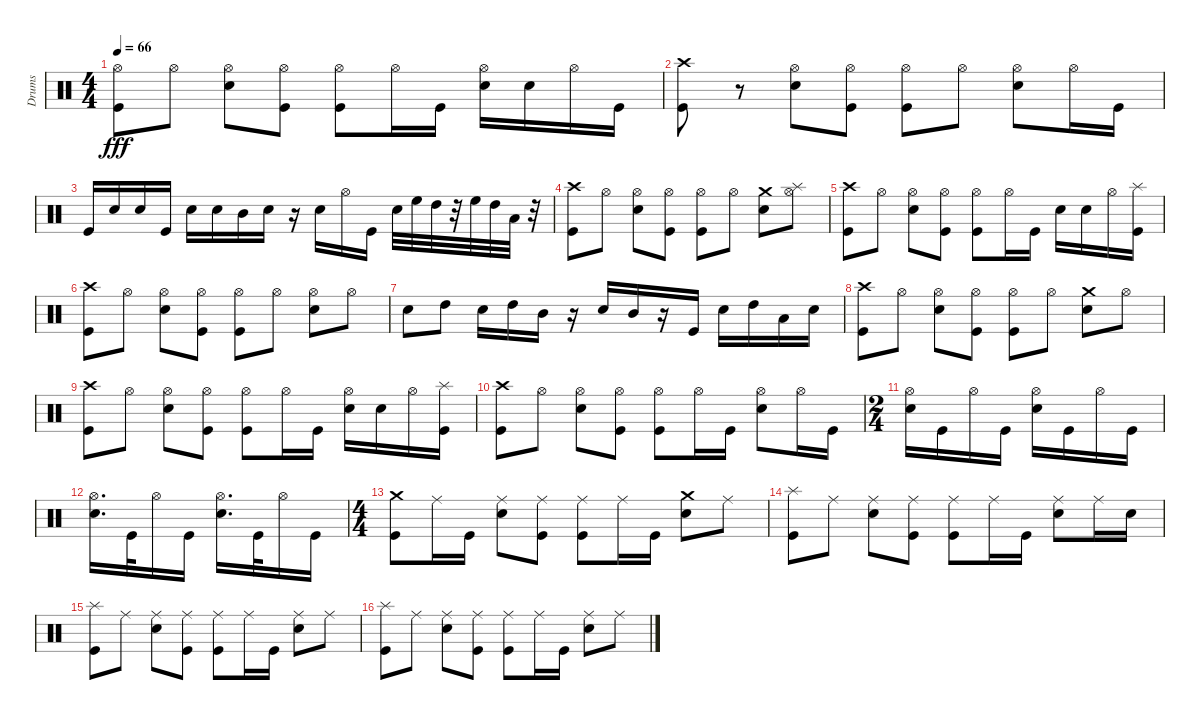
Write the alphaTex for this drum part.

\track ("Drums" "Drums") {instrument percussion}
\staff {score}
\articulation defaults
\ts (4 4)
\tempo 66
\clef neutral
\ks c
("Hi-Hat (open)" "Kick (hit)").8{dy fff} "Hi-Hat (open)".8 ("Hi-Hat (open)" "Snare (hit) 2").8 ("Hi-Hat (open)" "Kick (hit)").8 ("Hi-Hat (open)" "Kick (hit)").8 "Hi-Hat (open)".16 "Kick (hit)".16 ("Hi-Hat (open)" "Snare (hit) 2").16 "Snare (hit) 2".16 "Hi-Hat (open)".16 "Kick (hit)".16 |
("Crash high (hit)" "Kick (hit)").8 r.8 ("Hi-Hat (open)" "Snare (hit) 2").8 ("Hi-Hat (open)" "Kick (hit)").8 ("Hi-Hat (open)" "Kick (hit)").8 "Hi-Hat (open)".8 ("Hi-Hat (open)" "Snare (hit) 2").8 "Hi-Hat (open)".16 "Kick (hit)".16 |
"Kick (hit)".16 "Snare (hit) 2".16 "Snare (hit) 2".16 "Kick (hit)".16 "Snare (hit) 2".16 "Snare (hit) 2".16 "Mid Tom (hit)".16 "Snare (hit) 2".16 r.16 "Snare (hit) 2".16 "Hi-Hat (open)".16 "Kick (hit)".16 "Snare (hit) 2".32 "High Floor Tom (hit)".32 "High Tom (hit)".32 r.32 "High Floor Tom (hit)".32 "High Tom (hit)".32 "Low Tom (hit)".32 r.32 |
("Crash high (hit)" "Kick (hit)").8 "Hi-Hat (open)".8 ("Hi-Hat (open)" "Snare (hit) 2").8 ("Hi-Hat (open)" "Kick (hit)").8 ("Hi-Hat (open)" "Kick (hit)").8 "Hi-Hat (open)".8 ("Crash medium (hit)" "Snare (hit) 2").8 ("Hi-Hat (open)" "Splash (hit)").8 |
("Crash high (hit)" "Kick (hit)").8 "Hi-Hat (open)".8 ("Hi-Hat (open)" "Snare (hit) 2").8 ("Hi-Hat (open)" "Kick (hit)").8 ("Hi-Hat (open)" "Kick (hit)").8 "Hi-Hat (open)".16 "Kick (hit)".16 "Snare (hit) 2".16 "Snare (hit) 2".16 "Hi-Hat (open)".16 ("Splash (hit)" "Kick (hit)").16 |
("Crash high (hit)" "Kick (hit)").8 "Hi-Hat (open)".8 ("Hi-Hat (open)" "Snare (hit) 2").8 ("Hi-Hat (open)" "Kick (hit)").8 ("Hi-Hat (open)" "Kick (hit)").8 "Hi-Hat (open)".8 ("Hi-Hat (open)" "Snare (hit) 2").8 "Hi-Hat (open)".8 |
"Snare (hit) 2".8 "High Tom (hit)".8 "Snare (hit) 2".16 "High Tom (hit)".16 "Mid Tom (hit)".16 r.16 "Snare (hit) 2".16 "Mid Tom (hit)".16 r.16 "Kick (hit)".16 "Snare (hit) 2".16 "High Tom (hit)".16 "Low Tom (hit)".16 "Snare (hit) 2".16 |
("Crash high (hit)" "Kick (hit)").8 "Hi-Hat (open)".8 ("Hi-Hat (open)" "Snare (hit) 2").8 ("Hi-Hat (open)" "Kick (hit)").8 ("Hi-Hat (open)" "Kick (hit)").8 "Hi-Hat (open)".8 ("Crash medium (hit)" "Snare (hit) 2").8 "Hi-Hat (open)".8 |
("Crash high (hit)" "Kick (hit)").8 "Hi-Hat (open)".8 ("Hi-Hat (open)" "Snare (hit) 2").8 ("Hi-Hat (open)" "Kick (hit)").8 ("Hi-Hat (open)" "Kick (hit)").8 "Hi-Hat (open)".16 "Kick (hit)".16 ("Hi-Hat (open)" "Snare (hit) 2").16 "Snare (hit) 2".16 "Hi-Hat (open)".16 ("Splash (hit)" "Kick (hit)").16 |
("Crash high (hit)" "Kick (hit)").8 "Hi-Hat (open)".8 ("Hi-Hat (open)" "Snare (hit) 2").8 ("Hi-Hat (open)" "Kick (hit)").8 ("Hi-Hat (open)" "Kick (hit)").8 "Hi-Hat (open)".16 "Kick (hit)".16 ("Hi-Hat (open)" "Snare (hit) 2").8 "Hi-Hat (open)".16 "Kick (hit)".16 |
\ts (2 4)
("Hi-Hat (open)" "Snare (hit) 2").16 "Kick (hit)".16 "Hi-Hat (open)".16 "Kick (hit)".16 ("Hi-Hat (open)" "Snare (hit) 2").16 "Kick (hit)".16 "Hi-Hat (open)".16 "Kick (hit)".16 |
("Hi-Hat (open)" "Snare (hit) 2").16{d} "Kick (hit)".32 "Hi-Hat (open)".16 "Kick (hit)".16 ("Hi-Hat (open)" "Snare (hit) 2").16{d} "Kick (hit)".32 "Hi-Hat (open)".16 "Kick (hit)".16 |
\ts (4 4)
("Crash medium (hit)" "Kick (hit)").8 "Ride (middle)".16 "Kick (hit)".16 ("Ride (middle)" "Snare (hit) 2").8 ("Ride (middle)" "Kick (hit)").8 ("Ride (middle)" "Kick (hit)").8 "Ride (middle)".16 "Kick (hit)".16 ("Crash medium (hit)" "Snare (hit) 2").8 "Ride (middle)".8 |
("Splash (hit)" "Kick (hit)").8 "Ride (middle)".8 ("Ride (middle)" "Snare (hit) 2").8 ("Ride (middle)" "Kick (hit)").8 ("Ride (middle)" "Kick (hit)").8 "Ride (middle)".16 "Kick (hit)".16 ("Ride (middle)" "Snare (hit) 2").8 "Ride (middle)".16 "Snare (hit) 2".16 |
("Splash (hit)" "Kick (hit)").8 "Ride (middle)".8 ("Ride (middle)" "Snare (hit) 2").8 ("Ride (middle)" "Kick (hit)").8 ("Ride (middle)" "Kick (hit)").8 "Ride (middle)".16 "Kick (hit)".16 ("Ride (middle)" "Snare (hit) 2").8 "Ride (middle)".8 |
("Splash (hit)" "Kick (hit)").8 "Ride (middle)".8 ("Ride (middle)" "Snare (hit) 2").8 ("Ride (middle)" "Kick (hit)").8 ("Ride (middle)" "Kick (hit)").8 "Ride (middle)".16 "Kick (hit)".16 ("Ride (middle)" "Snare (hit) 2").8 "Ride (middle)".8
